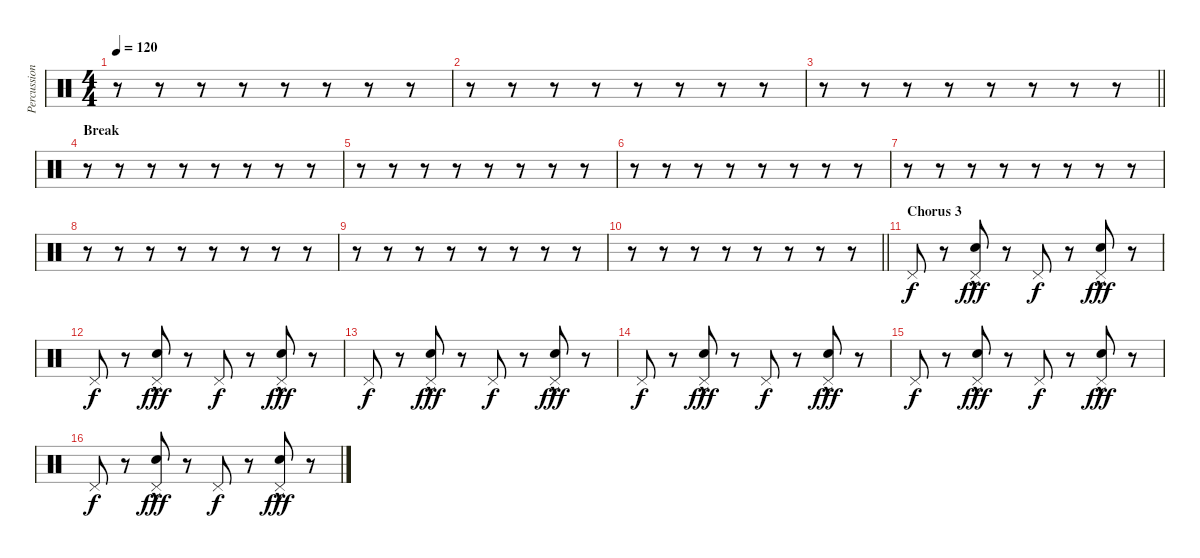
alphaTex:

\track ("Percussion" "Percussion") {instrument percussion}
\staff {score}
\articulation defaults
\ts (4 4)
\tempo 120
\clef neutral
\ks c
r.8{dy fff} r.8 r.8 r.8 r.8 r.8 r.8 r.8 |
r.8 r.8 r.8 r.8 r.8 r.8 r.8 r.8 |
\barLineRight lightlight
r.8 r.8 r.8 r.8 r.8 r.8 r.8 r.8 |
\section ("" "Break")
r.8 r.8 r.8 r.8 r.8 r.8 r.8 r.8 |
r.8 r.8 r.8 r.8 r.8 r.8 r.8 r.8 |
r.8 r.8 r.8 r.8 r.8 r.8 r.8 r.8 |
r.8 r.8 r.8 r.8 r.8 r.8 r.8 r.8 |
r.8 r.8 r.8 r.8 r.8 r.8 r.8 r.8 |
r.8 r.8 r.8 r.8 r.8 r.8 r.8 r.8 |
\barLineRight lightlight
r.8 r.8 r.8 r.8 r.8 r.8 r.8 r.8 |
\section ("" "Chorus 3")
"Pedal Hi-Hat (hit)".8{dy f} r.8 ("Snare (hit) 2"{hac} "Pedal Hi-Hat (hit)").8{dy fff} r.8 "Pedal Hi-Hat (hit)".8{dy f} r.8 ("Snare (hit) 2"{hac} "Pedal Hi-Hat (hit)").8{dy fff} r.8 |
"Pedal Hi-Hat (hit)".8{dy f} r.8 ("Snare (hit) 2"{hac} "Pedal Hi-Hat (hit)").8{dy fff} r.8 "Pedal Hi-Hat (hit)".8{dy f} r.8 ("Snare (hit) 2"{hac} "Pedal Hi-Hat (hit)").8{dy fff} r.8 |
"Pedal Hi-Hat (hit)".8{dy f} r.8 ("Snare (hit) 2"{hac} "Pedal Hi-Hat (hit)").8{dy fff} r.8 "Pedal Hi-Hat (hit)".8{dy f} r.8 ("Snare (hit) 2"{hac} "Pedal Hi-Hat (hit)").8{dy fff} r.8 |
"Pedal Hi-Hat (hit)".8{dy f} r.8 ("Snare (hit) 2"{hac} "Pedal Hi-Hat (hit)").8{dy fff} r.8 "Pedal Hi-Hat (hit)".8{dy f} r.8 ("Snare (hit) 2"{hac} "Pedal Hi-Hat (hit)").8{dy fff} r.8 |
"Pedal Hi-Hat (hit)".8{dy f} r.8 ("Snare (hit) 2"{hac} "Pedal Hi-Hat (hit)").8{dy fff} r.8 "Pedal Hi-Hat (hit)".8{dy f} r.8 ("Snare (hit) 2"{hac} "Pedal Hi-Hat (hit)").8{dy fff} r.8 |
"Pedal Hi-Hat (hit)".8{dy f} r.8 ("Snare (hit) 2"{hac} "Pedal Hi-Hat (hit)").8{dy fff} r.8 "Pedal Hi-Hat (hit)".8{dy f} r.8 ("Snare (hit) 2"{hac} "Pedal Hi-Hat (hit)").8{dy fff} r.8
